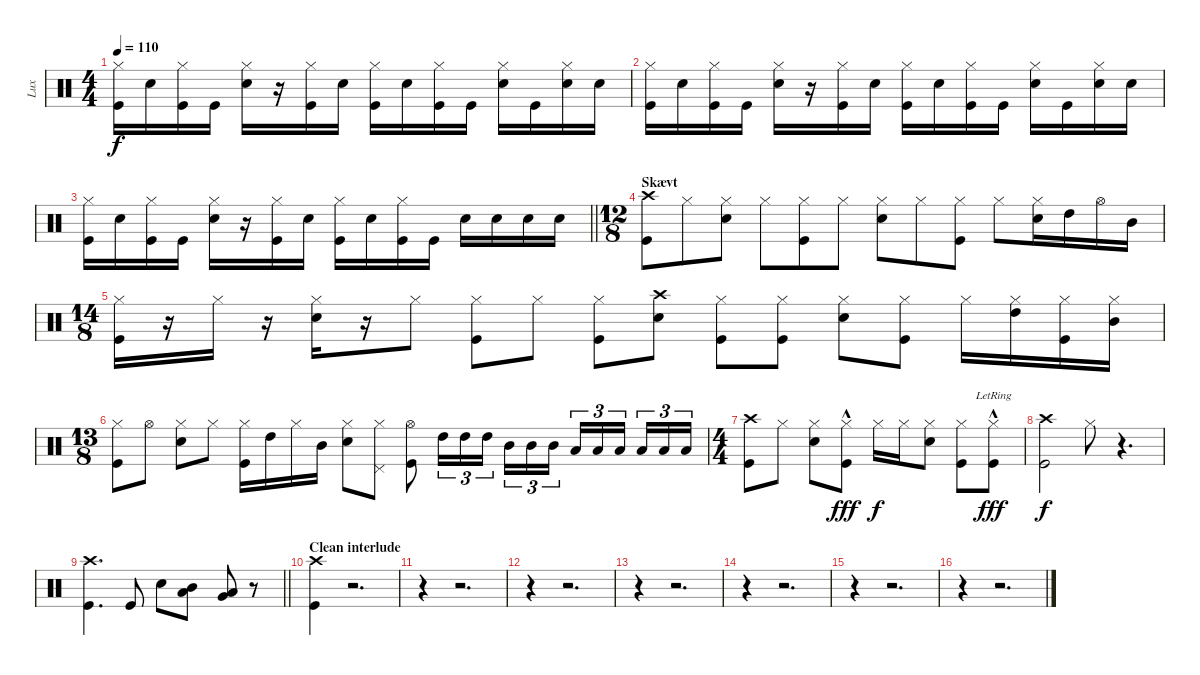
\track ("Lux" "Lux") {mute instrument percussion}
\staff {score}
\articulation defaults
\ts (4 4)
\tempo 110
\clef neutral
\ks c
("Hi-Hat (closed)" "Kick (hit)").16{dy f} "Snare (hit) 2".16 ("Hi-Hat (closed)" "Kick (hit)").16 "Kick (hit)".16 ("Hi-Hat (closed)" "Snare (hit) 2").16 r.16 ("Hi-Hat (closed)" "Kick (hit)").16 "Snare (hit) 2".16 ("Hi-Hat (closed)" "Kick (hit)").16 "Snare (hit) 2".16 ("Hi-Hat (closed)" "Kick (hit)").16 "Kick (hit)".16 ("Hi-Hat (closed)" "Snare (hit) 2").16 "Kick (hit)".16 ("Hi-Hat (closed)" "Snare (hit) 2").16 "Snare (hit) 2".16 |
("Hi-Hat (closed)" "Kick (hit)").16 "Snare (hit) 2".16 ("Hi-Hat (closed)" "Kick (hit)").16 "Kick (hit)".16 ("Hi-Hat (closed)" "Snare (hit) 2").16 r.16 ("Hi-Hat (closed)" "Kick (hit)").16 "Snare (hit) 2".16 ("Hi-Hat (closed)" "Kick (hit)").16 "Snare (hit) 2".16 ("Hi-Hat (closed)" "Kick (hit)").16 "Kick (hit)".16 ("Hi-Hat (closed)" "Snare (hit) 2").16 "Kick (hit)".16 ("Hi-Hat (closed)" "Snare (hit) 2").16 "Snare (hit) 2".16 |
\barLineRight lightlight
("Hi-Hat (closed)" "Kick (hit)").16 "Snare (hit) 2".16 ("Hi-Hat (closed)" "Kick (hit)").16 "Kick (hit)".16 ("Hi-Hat (closed)" "Snare (hit) 2").16 r.16 ("Hi-Hat (closed)" "Kick (hit)").16 "Snare (hit) 2".16 ("Hi-Hat (closed)" "Kick (hit)").16 "Snare (hit) 2".16 ("Hi-Hat (closed)" "Kick (hit)").16 "Kick (hit)".16 "Snare (hit) 2".16 "Snare (hit) 2".16 "Snare (hit) 2".16 "Snare (hit) 2".16 |
\ts (12 8)
\section ("" "Skævt")
("Crash high (hit)" "Kick (hit)").8 "Hi-Hat (closed)".8 ("Hi-Hat (closed)" "Snare (hit) 2").8 "Hi-Hat (closed)".8 ("Hi-Hat (closed)" "Kick (hit)").8 "Hi-Hat (closed)".8 ("Hi-Hat (closed)" "Snare (hit) 2").8 "Hi-Hat (closed)".8 ("Hi-Hat (closed)" "Kick (hit)").8 "Hi-Hat (closed)".8 ("Hi-Hat (closed)" "Snare (hit) 2").16 "High Tom (hit)".16 "Hi-Hat (open)".16 "Mid Tom (hit)".16 |
\ts (14 8)
("Hi-Hat (closed)" "Kick (hit)").16 r.16 "Hi-Hat (closed)".16 r.16 ("Hi-Hat (closed)" "Snare (hit) 2").16 r.16 "Hi-Hat (closed)".8 ("Hi-Hat (closed)" "Kick (hit)").8 "Hi-Hat (closed)".8 ("Hi-Hat (closed)" "Kick (hit)").8 ("Crash high (hit)" "Snare (hit) 2").8 ("Hi-Hat (closed)" "Kick (hit)").8 ("Hi-Hat (closed)" "Kick (hit)").8 ("Hi-Hat (closed)" "Snare (hit) 2").8 ("Hi-Hat (closed)" "Kick (hit)").8 "Hi-Hat (closed)".16 ("Hi-Hat (closed)" "High Tom (hit)").16 ("Hi-Hat (closed)" "Kick (hit)").16 ("Hi-Hat (closed)" "Mid Tom (hit)").16 |
\ts (13 8)
("Hi-Hat (closed)" "Kick (hit)").8 "Hi-Hat (open)".8 ("Hi-Hat (closed)" "Snare (hit) 2").8 "Hi-Hat (closed)".8 ("Hi-Hat (closed)" "Kick (hit)").16 "High Tom (hit)".16 "Hi-Hat (closed)".16 "Mid Tom (hit)".16 ("Hi-Hat (closed)" "Snare (hit) 2").8 ("Hi-Hat (closed)" "Pedal Hi-Hat (hit)").8 ("Hi-Hat (open)" "Kick (hit)").8 "High Tom (hit)".16{tu (3 2)} "High Tom (hit)".16{tu (3 2)} "High Tom (hit)".16{tu (3 2)} "Mid Tom (hit)".16{tu (3 2)} "Mid Tom (hit)".16{tu (3 2)} "Mid Tom (hit)".16{tu (3 2)} "Low Tom (hit)".16{tu (3 2)} "Low Tom (hit)".16{tu (3 2)} "Low Tom (hit)".16{tu (3 2)} "Low Tom (hit)".16{tu (3 2)} "Low Tom (hit)".16{tu (3 2)} "Low Tom (hit)".16{tu (3 2)} |
\ts (4 4)
("Crash high (hit)" "Kick (hit)").8 "Hi-Hat (closed)".8 ("Hi-Hat (closed)" "Snare (hit) 2").8 ("Hi-Hat (closed)"{hac} "Kick (hit)").8{dy fff} "Hi-Hat (closed)".16{dy f} "Hi-Hat (closed)".16 ("Hi-Hat (closed)" "Snare (hit) 2").8 ("Hi-Hat (closed)" "Kick (hit)").8 ("Hi-Hat (closed)"{hac} "Kick (hit)"{lr}).8{dy fff} |
("Crash high (hit)" "Kick (hit)").2{dy f} "Hi-Hat (closed)".8 r.4{d} |
\barLineRight lightlight
("Crash high (hit)" "Kick (hit)").4{d} "Kick (hit)".8 "Snare (hit) 2".8 ("Mid Tom (hit)" "Low Tom (hit)").8 ("Low Tom (hit)" "Very Low Tom (hit)").8 r.8 |
\section ("" "Clean interlude")
("Crash high (hit)" "Kick (hit)").4 r.2{d} |
r.4 r.2{d} |
r.4 r.2{d} |
r.4 r.2{d} |
r.4 r.2{d} |
r.4 r.2{d} |
r.4 r.2{d}
